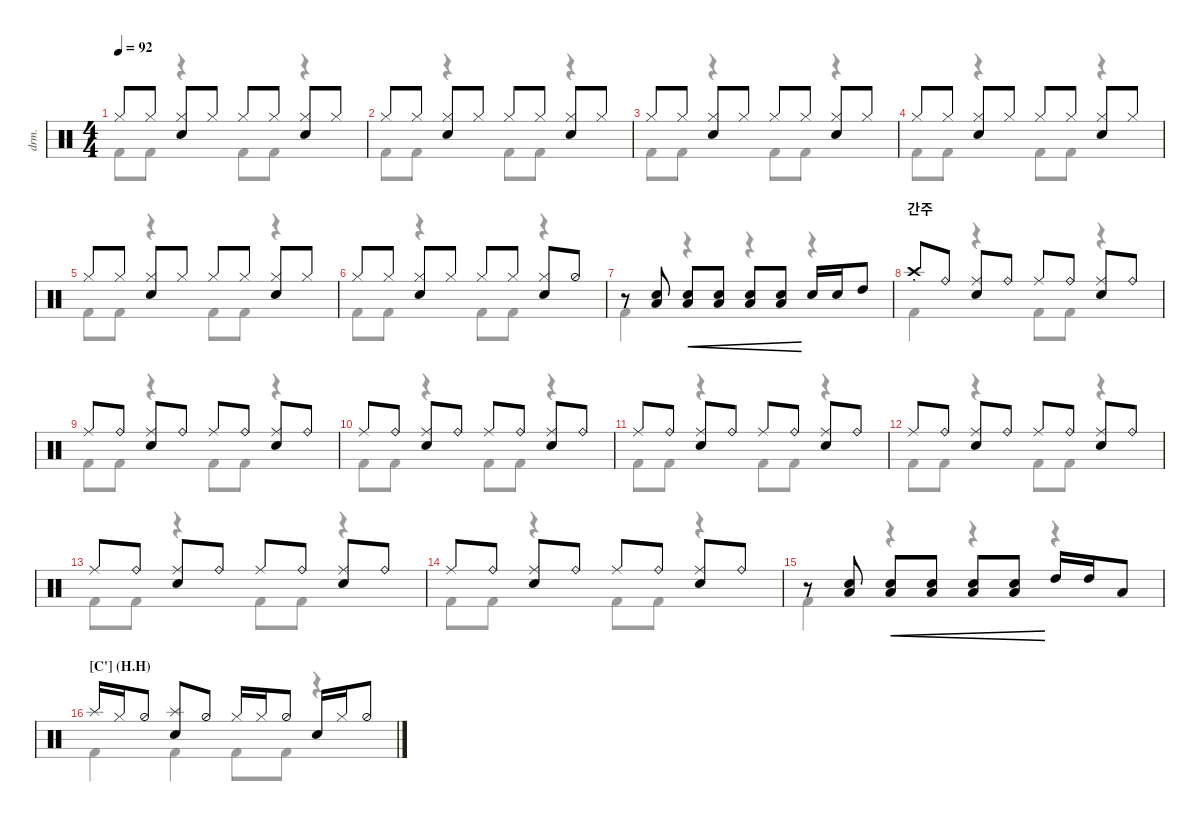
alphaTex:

\defaultSystemsLayout 4
\hideDynamics
\bracketExtendMode nobrackets
\track ("Drumkit" "drm.") {defaultSystemsLayout 4 instrument percussion}
\staff {score}
\articulation defaults
\voice
\ts (4 4)
\tempo 92
\clef neutral
\scale
0.241916
\ks c "Hi-Hat (closed)".8{dy mf beam Up} "Hi-Hat (closed)".8{beam Up}
("Hi-Hat (closed)" "Snare (hit) 2").8{beam Up} "Hi-Hat (closed)".8{beam Up} "Hi-Hat (closed)".8{beam Up} "Hi-Hat (closed)".8{beam Up} ("Hi-Hat (closed)" "Snare (hit) 2").8{beam Up} "Hi-Hat (closed)".8{beam Up} |
\scale
0.241916 "Hi-Hat (closed)".8{beam Up} "Hi-Hat (closed)".8{beam Up} ("Hi-Hat (closed)" "Snare (hit) 2").8{beam Up} "Hi-Hat (closed)".8{beam Up} "Hi-Hat (closed)".8{beam Up} "Hi-Hat (closed)".8{beam Up} ("Hi-Hat (closed)" "Snare (hit) 2").8{beam Up} "Hi-Hat (closed)".8{beam Up} |
"Hi-Hat (closed)".8{beam Up} "Hi-Hat (closed)".8{beam Up} ("Hi-Hat (closed)" "Snare (hit) 2").8{beam Up} "Hi-Hat (closed)".8{beam Up} "Hi-Hat (closed)".8{beam Up} "Hi-Hat (closed)".8{beam Up} ("Hi-Hat (closed)" "Snare (hit) 2").8{beam Up} "Hi-Hat (closed)".8{beam Up} |
"Hi-Hat (closed)".8{beam Up} "Hi-Hat (closed)".8{beam Up} ("Hi-Hat (closed)" "Snare (hit) 2").8{beam Up} "Hi-Hat (closed)".8{beam Up} "Hi-Hat (closed)".8{beam Up} "Hi-Hat (closed)".8{beam Up} ("Hi-Hat (closed)" "Snare (hit) 2").8{beam Up} "Hi-Hat (closed)".8{beam Up} |
"Hi-Hat (closed)".8{beam Up} "Hi-Hat (closed)".8{beam Up} ("Hi-Hat (closed)" "Snare (hit) 2").8{beam Up} "Hi-Hat (closed)".8{beam Up} "Hi-Hat (closed)".8{beam Up} "Hi-Hat (closed)".8{beam Up} ("Hi-Hat (closed)" "Snare (hit) 2").8{beam Up} "Hi-Hat (closed)".8{beam Up} |
"Hi-Hat (closed)".8{beam Up} "Hi-Hat (closed)".8{beam Up} ("Hi-Hat (closed)" "Snare (hit) 2").8{beam Up} "Hi-Hat (closed)".8{beam Up} "Hi-Hat (closed)".8{beam Up} "Hi-Hat (closed)".8{beam Up} ("Hi-Hat (closed)" "Snare (hit) 2").8{beam Up} "Hi-Hat (half)".8{beam Up} |
r.8{beam Up} ("Low Tom (hit)" "Snare (hit) 2").8{beam Up} ("Low Tom (hit)" "Snare (hit) 2").8{cre beam Up} ("Low Tom (hit)" "Snare (hit) 2").8{cre beam Up} ("Low Tom (hit)" "Snare (hit) 2").8{cre beam Up} ("Low Tom (hit)" "Snare (hit) 2").8{cre beam Up} "Snare (hit) 2".16{beam Up} "Snare (hit) 2".16{beam Up} "High Tom (hit)".8{beam Up} |
\section ("" "간주")
"Crash high (choke)".8{beam Up} "Ride (bell)".8{beam Up} ("Ride (middle)" "Snare (hit) 2").8{beam Up} "Ride (bell)".8{beam Up} "Ride (middle)".8{beam Up} "Ride (bell)".8{beam Up} ("Ride (middle)" "Snare (hit) 2").8{beam Up} "Ride (bell)".8{beam Up} |
"Ride (middle)".8{beam Up} "Ride (bell)".8{beam Up} ("Ride (middle)" "Snare (hit) 2").8{beam Up} "Ride (bell)".8{beam Up} "Ride (middle)".8{beam Up} "Ride (bell)".8{beam Up} ("Ride (middle)" "Snare (hit) 2").8{beam Up} "Ride (bell)".8{beam Up} |
"Ride (middle)".8{beam Up} "Ride (bell)".8{beam Up} ("Ride (middle)" "Snare (hit) 2").8{beam Up} "Ride (bell)".8{beam Up} "Ride (middle)".8{beam Up} "Ride (bell)".8{beam Up} ("Ride (middle)" "Snare (hit) 2").8{beam Up} "Ride (bell)".8{beam Up} |
"Ride (middle)".8{beam Up} "Ride (bell)".8{beam Up} ("Ride (middle)" "Snare (hit) 2").8{beam Up} "Ride (bell)".8{beam Up} "Ride (middle)".8{beam Up} "Ride (bell)".8{beam Up} ("Ride (middle)" "Snare (hit) 2").8{beam Up} "Ride (bell)".8{beam Up} |
\scale
0.268202 "Ride (middle)".8{beam Up} "Ride (bell)".8{beam Up} ("Ride (middle)" "Snare (hit) 2").8{beam Up} "Ride (bell)".8{beam Up} "Ride (middle)".8{beam Up} "Ride (bell)".8{beam Up} ("Ride (middle)" "Snare (hit) 2").8{beam Up} "Ride (bell)".8{beam Up} |
"Ride (middle)".8{beam Up} "Ride (bell)".8{beam Up} ("Ride (middle)" "Snare (hit) 2").8{beam Up} "Ride (bell)".8{beam Up} "Ride (middle)".8{beam Up} "Ride (bell)".8{beam Up} ("Ride (middle)" "Snare (hit) 2").8{beam Up} "Ride (bell)".8{beam Up} |
"Ride (middle)".8{beam Up} "Ride (bell)".8{beam Up} ("Ride (middle)" "Snare (hit) 2").8{beam Up} "Ride (bell)".8{beam Up} "Ride (middle)".8{beam Up} "Ride (bell)".8{beam Up} ("Ride (middle)" "Snare (hit) 2").8{beam Up} "Ride (bell)".8{beam Up} |
r.8{beam Up} ("Low Tom (hit)" "Snare (hit) 2").8{beam Up} ("Low Tom (hit)" "Snare (hit) 2").8{cre beam Up} ("Low Tom (hit)" "Snare (hit) 2").8{cre beam Up} ("Low Tom (hit)" "Snare (hit) 2").8{cre beam Up} ("Low Tom (hit)" "Snare (hit) 2").8{cre beam Up} "High Tom (hit)".16{beam Up} "High Tom (hit)".16{beam Up} "Low Tom (hit)".8{beam Up} |
\section ("C'" "(H.H)")
"Splash (hit)".16{beam Up} "Hi-Hat (closed)".16{beam Up} "Hi-Hat (half)".8{beam Up} ("Splash (hit)" "Snare (hit) 2").8{beam Up} "Hi-Hat (half)".8{beam Up} "Hi-Hat (closed)".16{beam Up} "Hi-Hat (closed)".16{beam Up} "Hi-Hat (half)".8{beam Up} "Snare (hit) 2".16{beam Up} "Hi-Hat (closed)".16{beam Up} "Hi-Hat (half)".8{beam Up}
\voice
\clef neutral
\ottava regular
\simile none
\scale
0.241916
\ks c "Kick (hit) 2".8{dy mf beam Down} "Kick (hit) 2".8{beam Down}
r.4{beam Down} "Kick (hit) 2".8{beam Down} "Kick (hit) 2".8{beam Down} r.4{beam Down} |
\scale
0.241916 "Kick (hit) 2".8{beam Down} "Kick (hit) 2".8{beam Down} r.4{beam Down} "Kick (hit) 2".8{beam Down} "Kick (hit) 2".8{beam Down} r.4{beam Down} |
"Kick (hit) 2".8{beam Down} "Kick (hit) 2".8{beam Down} r.4{beam Down} "Kick (hit) 2".8{beam Down} "Kick (hit) 2".8{beam Down} r.4{beam Down} |
"Kick (hit) 2".8{beam Down} "Kick (hit) 2".8{beam Down} r.4{beam Down} "Kick (hit) 2".8{beam Down} "Kick (hit) 2".8{beam Down} r.4{beam Down} |
"Kick (hit) 2".8{beam Down} "Kick (hit) 2".8{beam Down} r.4{beam Down} "Kick (hit) 2".8{beam Down} "Kick (hit) 2".8{beam Down} r.4{beam Down} |
"Kick (hit) 2".8{beam Down} "Kick (hit) 2".8{beam Down} r.4{beam Down} "Kick (hit) 2".8{beam Down} "Kick (hit) 2".8{beam Down} r.4{beam Down} |
"Kick (hit) 2".4{beam Down} r.4{beam Down} r.4{beam Down} r.4{beam Down} |
"Kick (hit) 2".4{beam Down} r.4{beam Down} "Kick (hit) 2".8{beam Down} "Kick (hit) 2".8{beam Down} r.4{beam Down} |
"Kick (hit) 2".8{beam Down} "Kick (hit) 2".8{beam Down} r.4{beam Down} "Kick (hit) 2".8{beam Down} "Kick (hit) 2".8{beam Down} r.4{beam Down} |
"Kick (hit) 2".8{beam Down} "Kick (hit) 2".8{beam Down} r.4{beam Down} "Kick (hit) 2".8{beam Down} "Kick (hit) 2".8{beam Down} r.4{beam Down} |
"Kick (hit) 2".8{beam Down} "Kick (hit) 2".8{beam Down} r.4{beam Down} "Kick (hit) 2".8{beam Down} "Kick (hit) 2".8{beam Down} r.4{beam Down} |
\scale
0.268202 "Kick (hit) 2".8{beam Down} "Kick (hit) 2".8{beam Down} r.4{beam Down} "Kick (hit) 2".8{beam Down} "Kick (hit) 2".8{beam Down} r.4{beam Down} |
"Kick (hit) 2".8{beam Down} "Kick (hit) 2".8{beam Down} r.4{beam Down} "Kick (hit) 2".8{beam Down} "Kick (hit) 2".8{beam Down} r.4{beam Down} |
"Kick (hit) 2".8{beam Down} "Kick (hit) 2".8{beam Down} r.4{beam Down} "Kick (hit) 2".8{beam Down} "Kick (hit) 2".8{beam Down} r.4{beam Down} |
"Kick (hit) 2".4{beam Down} r.4{beam Down} r.4{beam Down} r.4{beam Down} |
"Kick (hit) 2".4{beam Down} "Kick (hit) 2".4{beam Down} "Kick (hit) 2".8{beam Down} "Kick (hit) 2".8{beam Down} r.4{beam Down}
